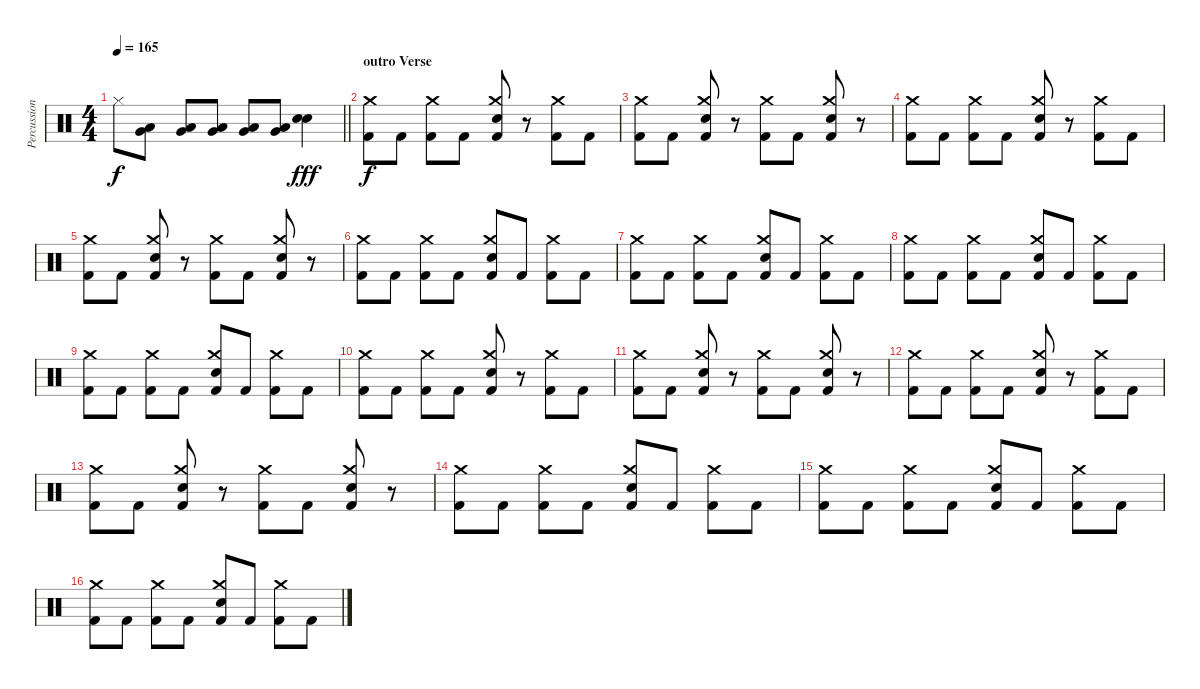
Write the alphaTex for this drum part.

\track ("Percussion" "Percussion") {instrument percussion}
\staff {score}
\articulation defaults
\ts (4 4)
\tempo 165
\clef neutral
\barLineRight lightlight
\ks c "Hi-Hat (closed)".8{dy f}
("Very Low Tom (hit)" "Low Floor Tom (hit)").8 ("Very Low Tom (hit)" "Low Floor Tom (hit)").8 ("Very Low Tom (hit)" "Low Floor Tom (hit)").8 ("Very Low Tom (hit)" "Low Floor Tom (hit)").8 ("Very Low Tom (hit)" "Low Floor Tom (hit)").8 ("Electric Snare (hit)" "Electric Snare (hit)").4{dy fff} |
\section ("" "outro Verse")
("Crash medium (hit)" "Kick (hit) 2").8{dy f} "Kick (hit) 2".8 ("Crash medium (hit)" "Kick (hit) 2").8 "Kick (hit) 2".8 ("Crash medium (hit)" "Electric Snare (hit)" "Kick (hit) 2").8 r.8 ("Crash medium (hit)" "Kick (hit) 2").8 "Kick (hit) 2".8 |
("Crash medium (hit)" "Kick (hit) 2").8 "Kick (hit) 2".8 ("Crash medium (hit)" "Electric Snare (hit)" "Kick (hit) 2").8 r.8 ("Crash medium (hit)" "Kick (hit) 2").8 "Kick (hit) 2".8 ("Crash medium (hit)" "Electric Snare (hit)" "Kick (hit) 2").8 r.8 |
("Crash medium (hit)" "Kick (hit) 2").8 "Kick (hit) 2".8 ("Crash medium (hit)" "Kick (hit) 2").8 "Kick (hit) 2".8 ("Crash medium (hit)" "Electric Snare (hit)" "Kick (hit) 2").8 r.8 ("Crash medium (hit)" "Kick (hit) 2").8 "Kick (hit) 2".8 |
("Crash medium (hit)" "Kick (hit) 2").8 "Kick (hit) 2".8 ("Crash medium (hit)" "Electric Snare (hit)" "Kick (hit) 2").8 r.8 ("Crash medium (hit)" "Kick (hit) 2").8 "Kick (hit) 2".8 ("Crash medium (hit)" "Electric Snare (hit)" "Kick (hit) 2").8 r.8 |
("Crash medium (hit)" "Kick (hit) 2").8 "Kick (hit) 2".8 ("Crash medium (hit)" "Kick (hit) 2").8 "Kick (hit) 2".8 ("Crash medium (hit)" "Electric Snare (hit)" "Kick (hit) 2").8 "Kick (hit) 2".8 ("Crash medium (hit)" "Kick (hit) 2").8 "Kick (hit) 2".8 |
("Crash medium (hit)" "Kick (hit) 2").8 "Kick (hit) 2".8 ("Crash medium (hit)" "Kick (hit) 2").8 "Kick (hit) 2".8 ("Crash medium (hit)" "Electric Snare (hit)" "Kick (hit) 2").8 "Kick (hit) 2".8 ("Crash medium (hit)" "Kick (hit) 2").8 "Kick (hit) 2".8 |
("Crash medium (hit)" "Kick (hit) 2").8 "Kick (hit) 2".8 ("Crash medium (hit)" "Kick (hit) 2").8 "Kick (hit) 2".8 ("Crash medium (hit)" "Electric Snare (hit)" "Kick (hit) 2").8 "Kick (hit) 2".8 ("Crash medium (hit)" "Kick (hit) 2").8 "Kick (hit) 2".8 |
("Crash medium (hit)" "Kick (hit) 2").8 "Kick (hit) 2".8 ("Crash medium (hit)" "Kick (hit) 2").8 "Kick (hit) 2".8 ("Crash medium (hit)" "Electric Snare (hit)" "Kick (hit) 2").8 "Kick (hit) 2".8 ("Crash medium (hit)" "Kick (hit) 2").8 "Kick (hit) 2".8 |
("Crash medium (hit)" "Kick (hit) 2").8 "Kick (hit) 2".8 ("Crash medium (hit)" "Kick (hit) 2").8 "Kick (hit) 2".8 ("Crash medium (hit)" "Electric Snare (hit)" "Kick (hit) 2").8 r.8 ("Crash medium (hit)" "Kick (hit) 2").8 "Kick (hit) 2".8 |
("Crash medium (hit)" "Kick (hit) 2").8 "Kick (hit) 2".8 ("Crash medium (hit)" "Electric Snare (hit)" "Kick (hit) 2").8 r.8 ("Crash medium (hit)" "Kick (hit) 2").8 "Kick (hit) 2".8 ("Crash medium (hit)" "Electric Snare (hit)" "Kick (hit) 2").8 r.8 |
("Crash medium (hit)" "Kick (hit) 2").8 "Kick (hit) 2".8 ("Crash medium (hit)" "Kick (hit) 2").8 "Kick (hit) 2".8 ("Crash medium (hit)" "Electric Snare (hit)" "Kick (hit) 2").8 r.8 ("Crash medium (hit)" "Kick (hit) 2").8 "Kick (hit) 2".8 |
("Crash medium (hit)" "Kick (hit) 2").8 "Kick (hit) 2".8 ("Crash medium (hit)" "Electric Snare (hit)" "Kick (hit) 2").8 r.8 ("Crash medium (hit)" "Kick (hit) 2").8 "Kick (hit) 2".8 ("Crash medium (hit)" "Electric Snare (hit)" "Kick (hit) 2").8 r.8 |
("Crash medium (hit)" "Kick (hit) 2").8 "Kick (hit) 2".8 ("Crash medium (hit)" "Kick (hit) 2").8 "Kick (hit) 2".8 ("Crash medium (hit)" "Electric Snare (hit)" "Kick (hit) 2").8 "Kick (hit) 2".8 ("Crash medium (hit)" "Kick (hit) 2").8 "Kick (hit) 2".8 |
("Crash medium (hit)" "Kick (hit) 2").8 "Kick (hit) 2".8 ("Crash medium (hit)" "Kick (hit) 2").8 "Kick (hit) 2".8 ("Crash medium (hit)" "Electric Snare (hit)" "Kick (hit) 2").8 "Kick (hit) 2".8 ("Crash medium (hit)" "Kick (hit) 2").8 "Kick (hit) 2".8 |
("Crash medium (hit)" "Kick (hit) 2").8 "Kick (hit) 2".8 ("Crash medium (hit)" "Kick (hit) 2").8 "Kick (hit) 2".8 ("Crash medium (hit)" "Electric Snare (hit)" "Kick (hit) 2").8 "Kick (hit) 2".8 ("Crash medium (hit)" "Kick (hit) 2").8 "Kick (hit) 2".8
